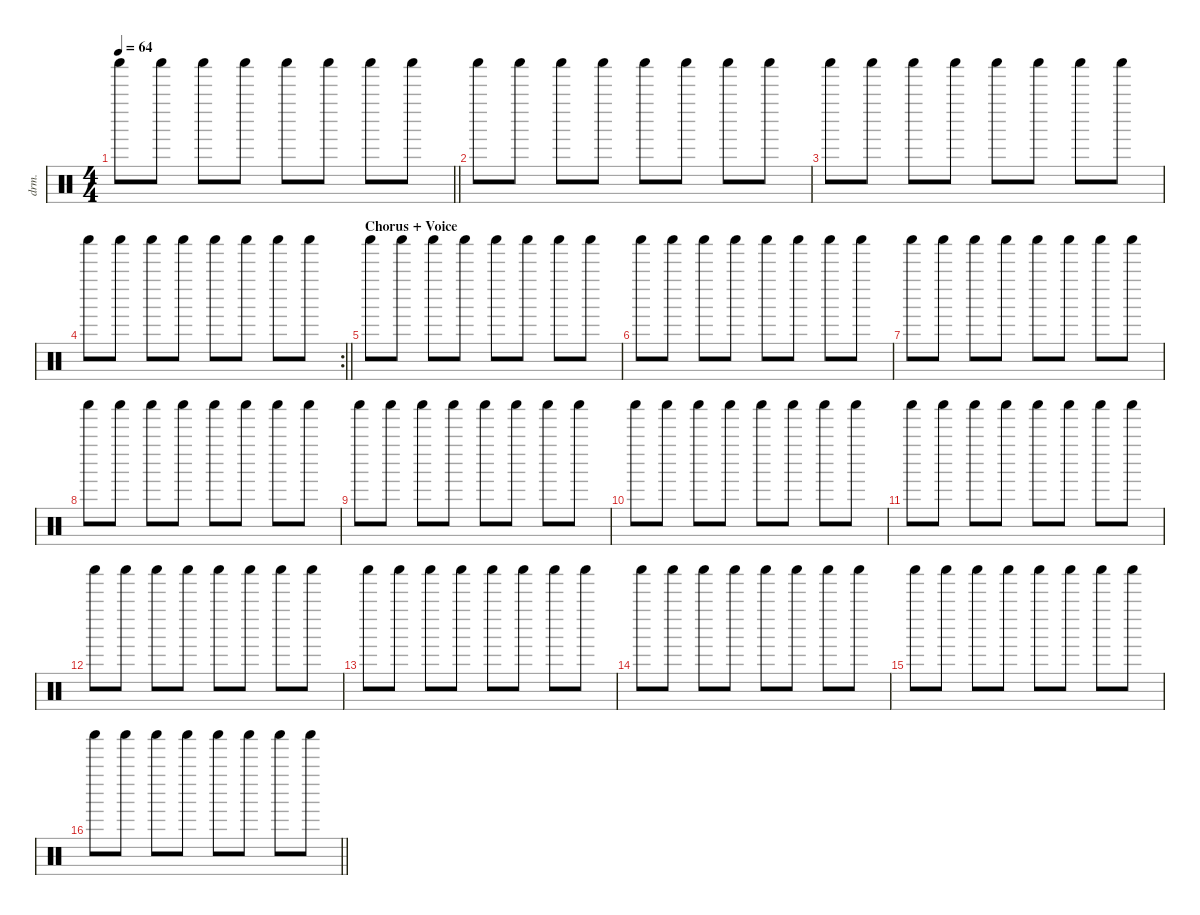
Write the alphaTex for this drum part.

\defaultSystemsLayout 4
\hideDynamics
\bracketExtendMode nobrackets
\track ("Percussions" "drm.") {instrument percussion}
\staff {score}
\articulation defaults
\ts (4 4)
\tempo 64
\clef neutral
\barLineRight lightlight
\ks c "Shaker (hit)".8{dy f} "Shaker (hit)".8 "Shaker (hit)".8 "Shaker (hit)".8 "Shaker (hit)".8 "Shaker (hit)".8 "Shaker (hit)".8 "Shaker (hit)".8
|
"Shaker (hit)".8 "Shaker (hit)".8 "Shaker (hit)".8 "Shaker (hit)".8 "Shaker (hit)".8 "Shaker (hit)".8 "Shaker (hit)".8 "Shaker (hit)".8 |
"Shaker (hit)".8 "Shaker (hit)".8 "Shaker (hit)".8 "Shaker (hit)".8 "Shaker (hit)".8 "Shaker (hit)".8 "Shaker (hit)".8 "Shaker (hit)".8 |
\rc 2
\barLineRight lightlight "Shaker (hit)".8 "Shaker (hit)".8 "Shaker (hit)".8 "Shaker (hit)".8 "Shaker (hit)".8 "Shaker (hit)".8 "Shaker (hit)".8 "Shaker (hit)".8
|
\section ("" "Chorus + Voice")
"Shaker (hit)".8 "Shaker (hit)".8 "Shaker (hit)".8 "Shaker (hit)".8 "Shaker (hit)".8 "Shaker (hit)".8 "Shaker (hit)".8 "Shaker (hit)".8 |
"Shaker (hit)".8 "Shaker (hit)".8 "Shaker (hit)".8 "Shaker (hit)".8 "Shaker (hit)".8 "Shaker (hit)".8 "Shaker (hit)".8 "Shaker (hit)".8 |
"Shaker (hit)".8 "Shaker (hit)".8 "Shaker (hit)".8 "Shaker (hit)".8 "Shaker (hit)".8 "Shaker (hit)".8 "Shaker (hit)".8 "Shaker (hit)".8 |
"Shaker (hit)".8 "Shaker (hit)".8 "Shaker (hit)".8 "Shaker (hit)".8 "Shaker (hit)".8 "Shaker (hit)".8 "Shaker (hit)".8 "Shaker (hit)".8 |
"Shaker (hit)".8 "Shaker (hit)".8 "Shaker (hit)".8 "Shaker (hit)".8 "Shaker (hit)".8 "Shaker (hit)".8 "Shaker (hit)".8 "Shaker (hit)".8 |
"Shaker (hit)".8 "Shaker (hit)".8 "Shaker (hit)".8 "Shaker (hit)".8 "Shaker (hit)".8 "Shaker (hit)".8 "Shaker (hit)".8 "Shaker (hit)".8 |
"Shaker (hit)".8 "Shaker (hit)".8 "Shaker (hit)".8 "Shaker (hit)".8 "Shaker (hit)".8 "Shaker (hit)".8 "Shaker (hit)".8 "Shaker (hit)".8 |
"Shaker (hit)".8 "Shaker (hit)".8 "Shaker (hit)".8 "Shaker (hit)".8 "Shaker (hit)".8 "Shaker (hit)".8 "Shaker (hit)".8 "Shaker (hit)".8 |
"Shaker (hit)".8 "Shaker (hit)".8 "Shaker (hit)".8 "Shaker (hit)".8 "Shaker (hit)".8 "Shaker (hit)".8 "Shaker (hit)".8 "Shaker (hit)".8 |
"Shaker (hit)".8 "Shaker (hit)".8 "Shaker (hit)".8 "Shaker (hit)".8 "Shaker (hit)".8 "Shaker (hit)".8 "Shaker (hit)".8 "Shaker (hit)".8 |
"Shaker (hit)".8 "Shaker (hit)".8 "Shaker (hit)".8 "Shaker (hit)".8 "Shaker (hit)".8 "Shaker (hit)".8 "Shaker (hit)".8 "Shaker (hit)".8 |
\barLineRight lightlight "Shaker (hit)".8 "Shaker (hit)".8 "Shaker (hit)".8 "Shaker (hit)".8 "Shaker (hit)".8 "Shaker (hit)".8 "Shaker (hit)".8 "Shaker (hit)".8
